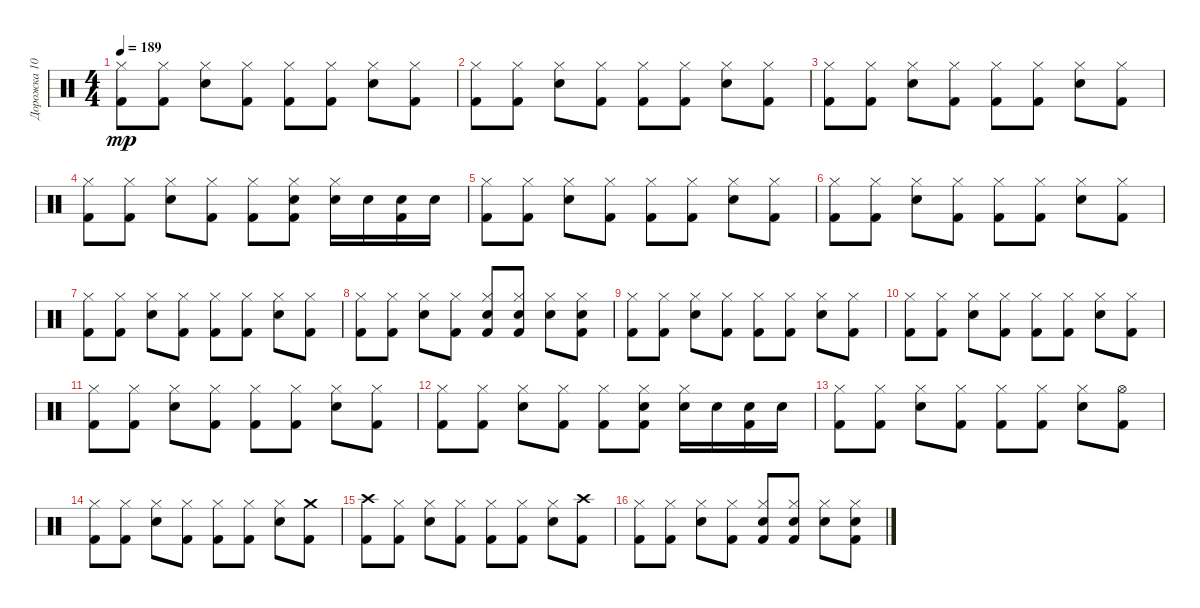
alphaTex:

\track ("Дорожка 10" "Дорожка 10") {instrument percussion}
\staff {score}
\articulation defaults
\ts (4 4)
\tempo 189
\clef neutral
\ks c
("Kick (hit) 2" "Hi-Hat (closed)").8{dy mp} ("Kick (hit) 2" "Hi-Hat (closed)").8 ("Snare (hit) 2" "Hi-Hat (closed)").8 ("Kick (hit) 2" "Hi-Hat (closed)").8 ("Kick (hit) 2" "Hi-Hat (closed)").8 ("Kick (hit) 2" "Hi-Hat (closed)").8 ("Snare (hit) 2" "Hi-Hat (closed)").8 ("Kick (hit) 2" "Hi-Hat (closed)").8 |
("Kick (hit) 2" "Hi-Hat (closed)").8 ("Kick (hit) 2" "Hi-Hat (closed)").8 ("Snare (hit) 2" "Hi-Hat (closed)").8 ("Kick (hit) 2" "Hi-Hat (closed)").8 ("Kick (hit) 2" "Hi-Hat (closed)").8 ("Kick (hit) 2" "Hi-Hat (closed)").8 ("Snare (hit) 2" "Hi-Hat (closed)").8 ("Kick (hit) 2" "Hi-Hat (closed)").8 |
("Kick (hit) 2" "Hi-Hat (closed)").8 ("Kick (hit) 2" "Hi-Hat (closed)").8 ("Snare (hit) 2" "Hi-Hat (closed)").8 ("Kick (hit) 2" "Hi-Hat (closed)").8 ("Kick (hit) 2" "Hi-Hat (closed)").8 ("Kick (hit) 2" "Hi-Hat (closed)").8 ("Snare (hit) 2" "Hi-Hat (closed)").8 ("Kick (hit) 2" "Hi-Hat (closed)").8 |
("Kick (hit) 2" "Hi-Hat (closed)").8 ("Kick (hit) 2" "Hi-Hat (closed)").8 ("Snare (hit) 2" "Hi-Hat (closed)").8 ("Kick (hit) 2" "Hi-Hat (closed)").8 ("Kick (hit) 2" "Hi-Hat (closed)").8 ("Kick (hit) 2" "Snare (hit) 2" "Hi-Hat (closed)").8 ("Snare (hit) 2" "Hi-Hat (closed)").16 "Snare (hit) 2".16 ("Kick (hit) 2" "Snare (hit) 2").16 "Snare (hit) 2".16 |
("Kick (hit) 2" "Hi-Hat (closed)").8 ("Kick (hit) 2" "Hi-Hat (closed)").8 ("Snare (hit) 2" "Hi-Hat (closed)").8 ("Kick (hit) 2" "Hi-Hat (closed)").8 ("Kick (hit) 2" "Hi-Hat (closed)").8 ("Kick (hit) 2" "Hi-Hat (closed)").8 ("Snare (hit) 2" "Hi-Hat (closed)").8 ("Kick (hit) 2" "Hi-Hat (closed)").8 |
("Kick (hit) 2" "Hi-Hat (closed)").8 ("Kick (hit) 2" "Hi-Hat (closed)").8 ("Snare (hit) 2" "Hi-Hat (closed)").8 ("Kick (hit) 2" "Hi-Hat (closed)").8 ("Kick (hit) 2" "Hi-Hat (closed)").8 ("Kick (hit) 2" "Hi-Hat (closed)").8 ("Snare (hit) 2" "Hi-Hat (closed)").8 ("Kick (hit) 2" "Hi-Hat (closed)").8 |
("Kick (hit) 2" "Hi-Hat (closed)").8 ("Kick (hit) 2" "Hi-Hat (closed)").8 ("Snare (hit) 2" "Hi-Hat (closed)").8 ("Kick (hit) 2" "Hi-Hat (closed)").8 ("Kick (hit) 2" "Hi-Hat (closed)").8 ("Kick (hit) 2" "Hi-Hat (closed)").8 ("Snare (hit) 2" "Hi-Hat (closed)").8 ("Kick (hit) 2" "Hi-Hat (closed)").8 |
("Kick (hit) 2" "Hi-Hat (closed)").8 ("Kick (hit) 2" "Hi-Hat (closed)").8 ("Snare (hit) 2" "Hi-Hat (closed)").8 ("Kick (hit) 2" "Hi-Hat (closed)").8 ("Kick (hit) 2" "Snare (hit) 2" "Hi-Hat (closed)").8 ("Kick (hit) 2" "Snare (hit) 2" "Hi-Hat (closed)").8 ("Snare (hit) 2" "Hi-Hat (closed)").8 ("Kick (hit) 2" "Snare (hit) 2" "Hi-Hat (closed)").8 |
("Kick (hit) 2" "Hi-Hat (closed)").8 ("Kick (hit) 2" "Hi-Hat (closed)").8 ("Snare (hit) 2" "Hi-Hat (closed)").8 ("Kick (hit) 2" "Hi-Hat (closed)").8 ("Kick (hit) 2" "Hi-Hat (closed)").8 ("Kick (hit) 2" "Hi-Hat (closed)").8 ("Snare (hit) 2" "Hi-Hat (closed)").8 ("Kick (hit) 2" "Hi-Hat (closed)").8 |
("Kick (hit) 2" "Hi-Hat (closed)").8 ("Kick (hit) 2" "Hi-Hat (closed)").8 ("Snare (hit) 2" "Hi-Hat (closed)").8 ("Kick (hit) 2" "Hi-Hat (closed)").8 ("Kick (hit) 2" "Hi-Hat (closed)").8 ("Kick (hit) 2" "Hi-Hat (closed)").8 ("Snare (hit) 2" "Hi-Hat (closed)").8 ("Kick (hit) 2" "Hi-Hat (closed)").8 |
("Kick (hit) 2" "Hi-Hat (closed)").8 ("Kick (hit) 2" "Hi-Hat (closed)").8 ("Snare (hit) 2" "Hi-Hat (closed)").8 ("Kick (hit) 2" "Hi-Hat (closed)").8 ("Kick (hit) 2" "Hi-Hat (closed)").8 ("Kick (hit) 2" "Hi-Hat (closed)").8 ("Snare (hit) 2" "Hi-Hat (closed)").8 ("Kick (hit) 2" "Hi-Hat (closed)").8 |
("Kick (hit) 2" "Hi-Hat (closed)").8 ("Kick (hit) 2" "Hi-Hat (closed)").8 ("Snare (hit) 2" "Hi-Hat (closed)").8 ("Kick (hit) 2" "Hi-Hat (closed)").8 ("Kick (hit) 2" "Hi-Hat (closed)").8 ("Kick (hit) 2" "Snare (hit) 2" "Hi-Hat (closed)").8 ("Snare (hit) 2" "Hi-Hat (closed)").16 "Snare (hit) 2".16 ("Kick (hit) 2" "Snare (hit) 2").16 "Snare (hit) 2".16 |
("Kick (hit) 2" "Hi-Hat (closed)").8 ("Kick (hit) 2" "Hi-Hat (closed)").8 ("Snare (hit) 2" "Hi-Hat (closed)").8 ("Kick (hit) 2" "Hi-Hat (closed)").8 ("Kick (hit) 2" "Hi-Hat (closed)").8 ("Kick (hit) 2" "Hi-Hat (closed)").8 ("Snare (hit) 2" "Hi-Hat (closed)").8 ("Kick (hit) 2" "Hi-Hat (open)").8 |
("Kick (hit) 2" "Hi-Hat (closed)").8 ("Kick (hit) 2" "Hi-Hat (closed)").8 ("Snare (hit) 2" "Hi-Hat (closed)").8 ("Kick (hit) 2" "Hi-Hat (closed)").8 ("Kick (hit) 2" "Hi-Hat (closed)").8 ("Kick (hit) 2" "Hi-Hat (closed)").8 ("Snare (hit) 2" "Hi-Hat (closed)").8 ("Kick (hit) 2" "Crash medium (hit)").8 |
("Kick (hit) 2" "Crash high (hit)").8 ("Kick (hit) 2" "Hi-Hat (closed)").8 ("Snare (hit) 2" "Hi-Hat (closed)").8 ("Kick (hit) 2" "Hi-Hat (closed)").8 ("Kick (hit) 2" "Hi-Hat (closed)").8 ("Kick (hit) 2" "Hi-Hat (closed)").8 ("Snare (hit) 2" "Hi-Hat (closed)").8 ("Kick (hit) 2" "Crash high (hit)").8 |
("Kick (hit) 2" "Hi-Hat (closed)").8 ("Kick (hit) 2" "Hi-Hat (closed)").8 ("Snare (hit) 2" "Hi-Hat (closed)").8 ("Kick (hit) 2" "Hi-Hat (closed)").8 ("Kick (hit) 2" "Snare (hit) 2" "Hi-Hat (closed)").8 ("Kick (hit) 2" "Snare (hit) 2" "Hi-Hat (closed)").8 ("Snare (hit) 2" "Hi-Hat (closed)").8 ("Kick (hit) 2" "Snare (hit) 2" "Hi-Hat (closed)").8
